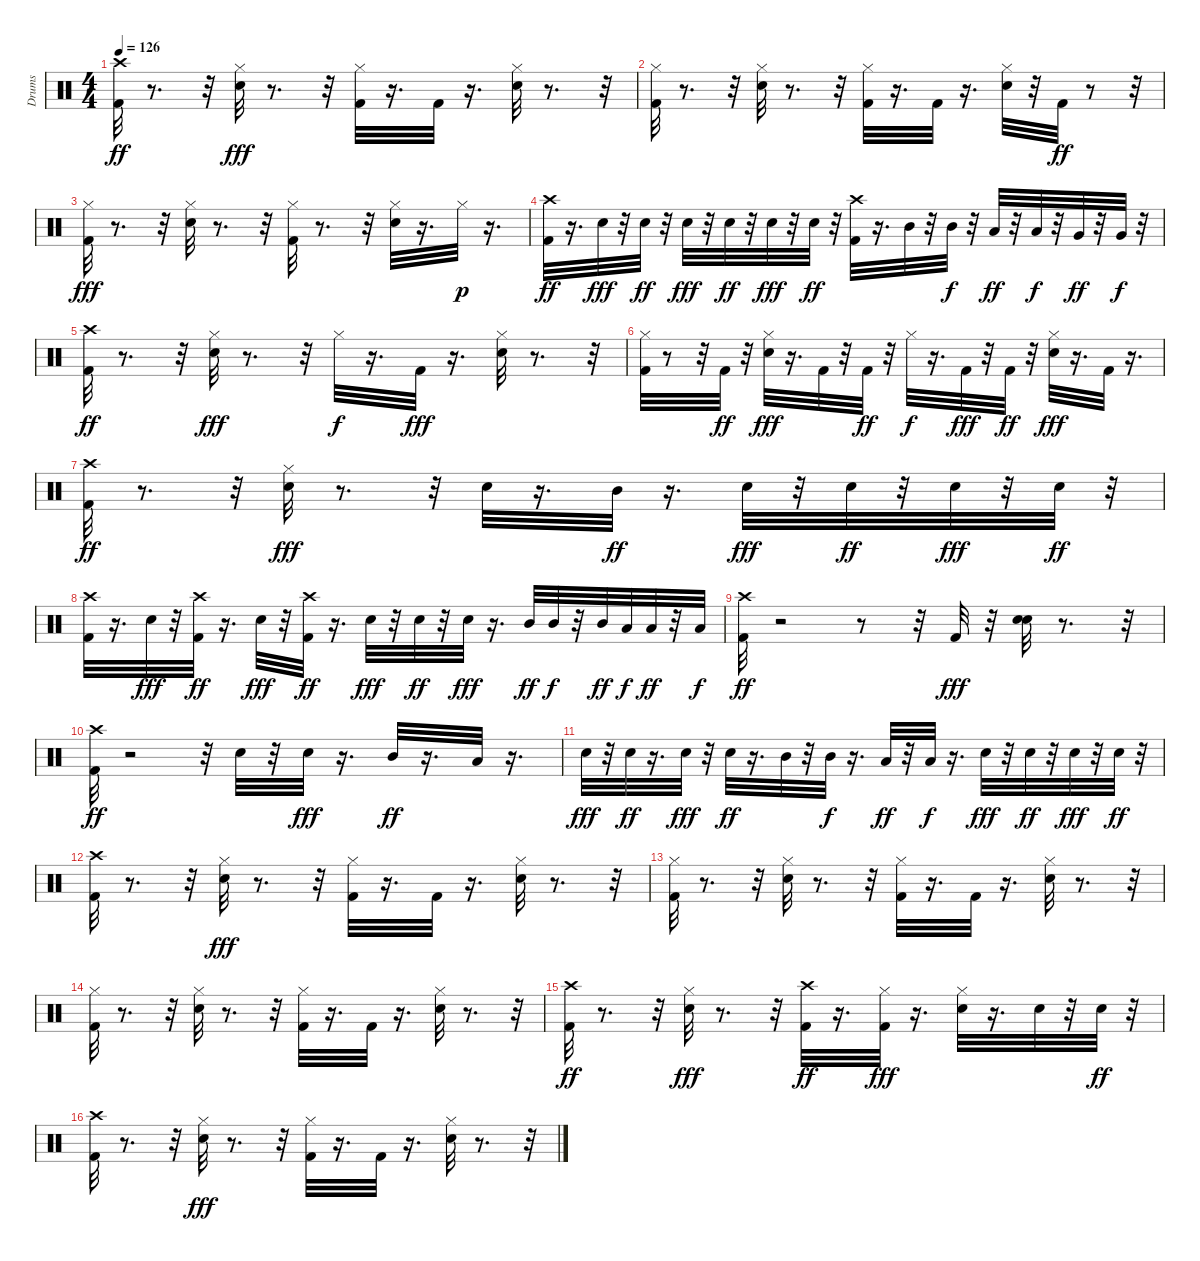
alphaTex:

\track ("Drums                               " "Drums     ") {instrument percussion}
\staff {score}
\articulation defaults
\ts (4 4)
\tempo 126
\clef neutral
\ks c
("Kick (hit) 2" "Crash high (hit)").32{dy ff} r.8{d} r.32 ("Snare (hit) 2" "Hi-Hat (closed)").32{dy fff} r.8{d} r.32 ("Kick (hit) 2" "Hi-Hat (closed)").32 r.16{d} "Kick (hit) 2".32 r.16{d} ("Snare (hit) 2" "Hi-Hat (closed)").32 r.8{d} r.32 |
("Kick (hit) 2" "Hi-Hat (closed)").32 r.8{d} r.32 ("Snare (hit) 2" "Hi-Hat (closed)").32 r.8{d} r.32 ("Kick (hit) 2" "Hi-Hat (closed)").32 r.16{d} "Kick (hit) 2".32 r.16{d} ("Snare (hit) 2" "Hi-Hat (closed)").32 r.32 "Kick (hit) 2".32{dy ff} r.8 r.32 |
("Kick (hit) 2" "Hi-Hat (closed)").32{dy fff} r.8{d} r.32 ("Snare (hit) 2" "Hi-Hat (closed)").32 r.8{d} r.32 ("Kick (hit) 2" "Hi-Hat (closed)").32 r.8{d} r.32 ("Snare (hit) 2" "Hi-Hat (closed)").32 r.16{d} "Hi-Hat (closed)".32{dy p} r.16{d} |
("Kick (hit) 2" "Crash high (hit)").32{dy ff} r.16{d} "Snare (hit) 2".32{dy fff} r.32 "Snare (hit) 2".32{dy ff} r.32 "Snare (hit) 2".32{dy fff} r.32 "Snare (hit) 2".32{dy ff} r.32 "Snare (hit) 2".32{dy fff} r.32 "Snare (hit) 2".32{dy ff} r.32 ("Kick (hit) 2" "Crash high (hit)").32 r.16{d} "Mid Tom (hit)".32 r.32 "Mid Tom (hit)".32{dy f} r.32 "Low Tom (hit)".32{dy ff} r.32 "Low Tom (hit)".32{dy f} r.32 "Very Low Tom (hit)".32{dy ff} r.32 "Very Low Tom (hit)".32{dy f} r.32 |
("Kick (hit) 2" "Crash high (hit)").32{dy ff} r.8{d} r.32 ("Snare (hit) 2" "Hi-Hat (closed)").32{dy fff} r.8{d} r.32 "Hi-Hat (closed)".32{dy f} r.16{d} "Kick (hit) 2".32{dy fff} r.16{d} ("Snare (hit) 2" "Hi-Hat (closed)").32 r.8{d} r.32 |
("Kick (hit) 2" "Hi-Hat (closed)").32 r.8 r.32 "Kick (hit) 2".32{dy ff} r.32 ("Snare (hit) 2" "Hi-Hat (closed)").32{dy fff} r.16{d} "Kick (hit) 2".32 r.32 "Kick (hit) 2".32{dy ff} r.32 "Hi-Hat (closed)".32{dy f} r.16{d} "Kick (hit) 2".32{dy fff} r.32 "Kick (hit) 2".32{dy ff} r.32 ("Snare (hit) 2" "Hi-Hat (closed)").32{dy fff} r.16{d} "Kick (hit) 2".32 r.16{d} |
("Kick (hit) 2" "Crash high (hit)").32{dy ff} r.8{d} r.32 ("Snare (hit) 2" "Hi-Hat (closed)").32{dy fff} r.8{d} r.32 "Snare (hit) 2".32 r.16{d} "Mid Tom (hit)".32{dy ff} r.16{d} "Snare (hit) 2".32{dy fff} r.32 "Snare (hit) 2".32{dy ff} r.32 "Snare (hit) 2".32{dy fff} r.32 "Snare (hit) 2".32{dy ff} r.32 |
("Kick (hit) 2" "Crash high (hit)").32 r.16{d} "Snare (hit) 2".32{dy fff} r.32 ("Kick (hit) 2" "Crash high (hit)").32{dy ff} r.16{d} "Snare (hit) 2".32{dy fff} r.32 ("Kick (hit) 2" "Crash high (hit)").32{dy ff} r.16{d} "Snare (hit) 2".32{dy fff} r.32 "Snare (hit) 2".32{dy ff} r.32 "Snare (hit) 2".32{dy fff} r.16{d} "Mid Tom (hit)".32{dy ff} "Mid Tom (hit)".32{dy f} r.32 "Mid Tom (hit)".32{dy ff} "Low Tom (hit)".32{dy f} "Low Tom (hit)".32{dy ff} r.32 "Low Tom (hit)".32{dy f} |
("Kick (hit) 2" "Crash high (hit)").32{dy ff} r.2 r.8 r.32 "Kick (hit) 2".32{dy fff} r.32 ("Snare (hit) 2" "Snare (hit) 2").32 r.8{d} r.32 |
("Kick (hit) 2" "Crash high (hit)").32{dy ff} r.2 r.32 "Snare (hit) 2".32 r.32 "Snare (hit) 2".32{dy fff} r.16{d} "Mid Tom (hit)".32{dy ff} r.16{d} "Low Tom (hit)".32 r.16{d} |
"Snare (hit) 2".32{dy fff} r.32 "Snare (hit) 2".32{dy ff} r.16{d} "Snare (hit) 2".32{dy fff} r.32 "Snare (hit) 2".32{dy ff} r.16{d} "Mid Tom (hit)".32 r.32 "Mid Tom (hit)".32{dy f} r.16{d} "Low Tom (hit)".32{dy ff} r.32 "Low Tom (hit)".32{dy f} r.16{d} "Snare (hit) 2".32{dy fff} r.32 "Snare (hit) 2".32{dy ff} r.32 "Snare (hit) 2".32{dy fff} r.32 "Snare (hit) 2".32{dy ff} r.32 |
("Kick (hit) 2" "Crash high (hit)").32 r.8{d} r.32 ("Snare (hit) 2" "Hi-Hat (closed)").32{dy fff} r.8{d} r.32 ("Kick (hit) 2" "Hi-Hat (closed)").32 r.16{d} "Kick (hit) 2".32 r.16{d} ("Snare (hit) 2" "Hi-Hat (closed)").32 r.8{d} r.32 |
("Kick (hit) 2" "Hi-Hat (closed)").32 r.8{d} r.32 ("Snare (hit) 2" "Hi-Hat (closed)").32 r.8{d} r.32 ("Kick (hit) 2" "Hi-Hat (closed)").32 r.16{d} "Kick (hit) 2".32 r.16{d} ("Snare (hit) 2" "Hi-Hat (closed)").32 r.8{d} r.32 |
("Kick (hit) 2" "Hi-Hat (closed)").32 r.8{d} r.32 ("Snare (hit) 2" "Hi-Hat (closed)").32 r.8{d} r.32 ("Kick (hit) 2" "Hi-Hat (closed)").32 r.16{d} "Kick (hit) 2".32 r.16{d} ("Snare (hit) 2" "Hi-Hat (closed)").32 r.8{d} r.32 |
("Kick (hit) 2" "Crash high (hit)").32{dy ff} r.8{d} r.32 ("Snare (hit) 2" "Hi-Hat (closed)").32{dy fff} r.8{d} r.32 ("Kick (hit) 2" "Crash high (hit)").32{dy ff} r.16{d} ("Kick (hit) 2" "Hi-Hat (closed)").32{dy fff} r.16{d} ("Snare (hit) 2" "Hi-Hat (closed)").32 r.16{d} "Snare (hit) 2".32 r.32 "Snare (hit) 2".32{dy ff} r.32 |
("Kick (hit) 2" "Crash high (hit)").32 r.8{d} r.32 ("Snare (hit) 2" "Hi-Hat (closed)").32{dy fff} r.8{d} r.32 ("Kick (hit) 2" "Hi-Hat (closed)").32 r.16{d} "Kick (hit) 2".32 r.16{d} ("Snare (hit) 2" "Hi-Hat (closed)").32 r.8{d} r.32
